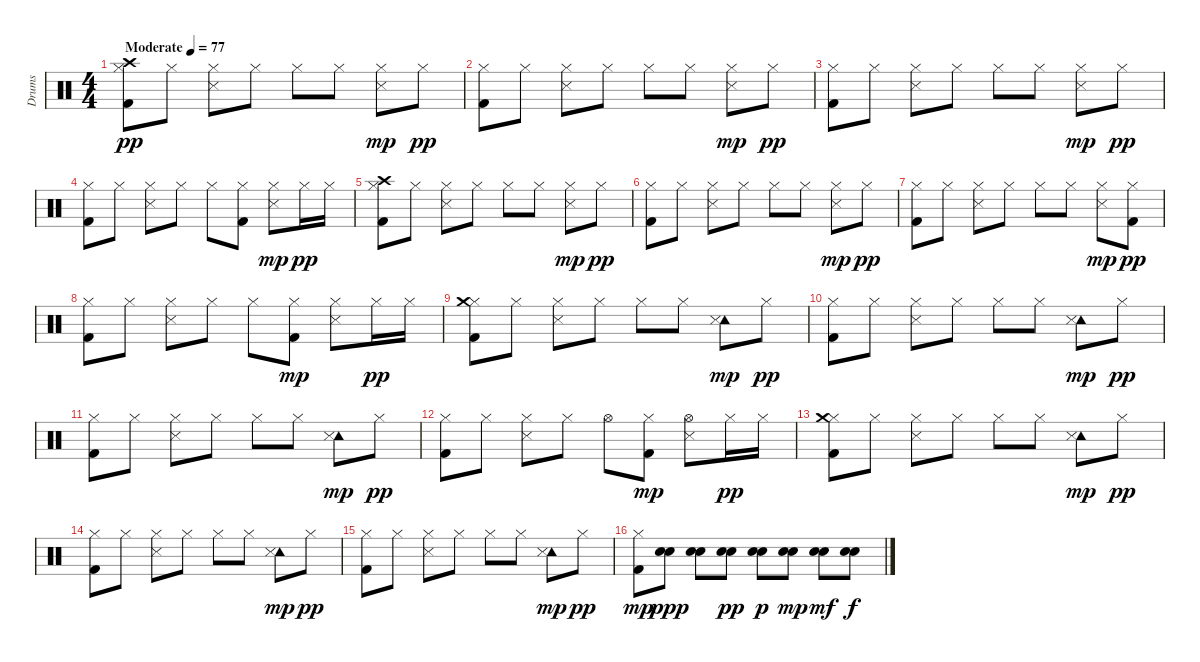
\track ("Drums" "Drums") {instrument percussion}
\staff {score}
\articulation defaults
\ts (4 4)
\tempo (77 "Moderate")
\clef neutral
\ks c
("Hi-Hat (closed)" "Crash high (hit)" "Kick (hit) 2").8{dy pp} "Hi-Hat (closed)".8 ("Hi-Hat (closed)" "Snare (side stick) 3").8 "Hi-Hat (closed)".8 "Hi-Hat (closed)".8 "Hi-Hat (closed)".8 ("Hi-Hat (closed)" "Snare (side stick) 3").8{dy mp} "Hi-Hat (closed)".8{dy pp} |
("Hi-Hat (closed)" "Kick (hit) 2").8 "Hi-Hat (closed)".8 ("Hi-Hat (closed)" "Snare (side stick) 3").8 "Hi-Hat (closed)".8 "Hi-Hat (closed)".8 "Hi-Hat (closed)".8 ("Hi-Hat (closed)" "Snare (side stick) 3").8{dy mp} "Hi-Hat (closed)".8{dy pp} |
("Hi-Hat (closed)" "Kick (hit) 2").8 "Hi-Hat (closed)".8 ("Hi-Hat (closed)" "Snare (side stick) 3").8 "Hi-Hat (closed)".8 "Hi-Hat (closed)".8 "Hi-Hat (closed)".8 ("Hi-Hat (closed)" "Snare (side stick) 3").8{dy mp} "Hi-Hat (closed)".8{dy pp} |
("Hi-Hat (closed)" "Kick (hit) 2").8 "Hi-Hat (closed)".8 ("Hi-Hat (closed)" "Snare (side stick) 3").8 "Hi-Hat (closed)".8 "Hi-Hat (closed)".8 ("Hi-Hat (closed)" "Kick (hit) 2").8 ("Hi-Hat (closed)" "Snare (side stick) 3").8{dy mp} "Hi-Hat (closed)".16{dy pp} "Hi-Hat (closed)".16 |
("Hi-Hat (closed)" "Crash high (hit)" "Kick (hit) 2").8 "Hi-Hat (closed)".8 ("Hi-Hat (closed)" "Snare (side stick) 3").8 "Hi-Hat (closed)".8 "Hi-Hat (closed)".8 "Hi-Hat (closed)".8 ("Hi-Hat (closed)" "Snare (side stick) 3").8{dy mp} "Hi-Hat (closed)".8{dy pp} |
("Hi-Hat (closed)" "Kick (hit) 2").8 "Hi-Hat (closed)".8 ("Hi-Hat (closed)" "Snare (side stick) 3").8 "Hi-Hat (closed)".8 "Hi-Hat (closed)".8 "Hi-Hat (closed)".8 ("Hi-Hat (closed)" "Snare (side stick) 3").8{dy mp} "Hi-Hat (closed)".8{dy pp} |
("Hi-Hat (closed)" "Kick (hit) 2").8 "Hi-Hat (closed)".8 ("Hi-Hat (closed)" "Snare (side stick) 3").8 "Hi-Hat (closed)".8 "Hi-Hat (closed)".8 "Hi-Hat (closed)".8 ("Hi-Hat (closed)" "Snare (side stick) 3").8{dy mp} ("Hi-Hat (closed)" "Kick (hit) 2").8{dy pp} |
("Hi-Hat (closed)" "Kick (hit) 2").8 "Hi-Hat (closed)".8 ("Hi-Hat (closed)" "Snare (side stick) 3").8 "Hi-Hat (closed)".8 "Hi-Hat (closed)".8 ("Hi-Hat (closed)" "Kick (hit) 2").8{dy mp} ("Hi-Hat (closed)" "Snare (side stick) 3").8 "Hi-Hat (closed)".16{dy pp} "Hi-Hat (closed)".16 |
("Hi-Hat (closed)" "Crash medium (hit)" "Kick (hit) 2").8 "Hi-Hat (closed)".8 ("Hi-Hat (closed)" "Snare (side stick) 3").8 "Hi-Hat (closed)".8 "Hi-Hat (closed)".8 "Hi-Hat (closed)".8 ("Tambourine (hit)" "Snare (side stick) 3").8{dy mp} "Hi-Hat (closed)".8{dy pp} |
("Hi-Hat (closed)" "Kick (hit) 2").8 "Hi-Hat (closed)".8 ("Hi-Hat (closed)" "Snare (side stick) 3").8 "Hi-Hat (closed)".8 "Hi-Hat (closed)".8 "Hi-Hat (closed)".8 ("Tambourine (hit)" "Snare (side stick) 3").8{dy mp} "Hi-Hat (closed)".8{dy pp} |
("Hi-Hat (closed)" "Kick (hit) 2").8 "Hi-Hat (closed)".8 ("Hi-Hat (closed)" "Snare (side stick) 3").8 "Hi-Hat (closed)".8 "Hi-Hat (closed)".8 "Hi-Hat (closed)".8 ("Tambourine (hit)" "Snare (side stick) 3").8{dy mp} "Hi-Hat (closed)".8{dy pp} |
("Hi-Hat (closed)" "Kick (hit) 2").8 "Hi-Hat (closed)".8 ("Hi-Hat (closed)" "Snare (side stick) 3").8 "Hi-Hat (closed)".8 "Hi-Hat (open)".8 ("Hi-Hat (closed)" "Kick (hit) 2").8{dy mp} ("Hi-Hat (open)" "Snare (side stick) 3").8 "Hi-Hat (closed)".16{dy pp} "Hi-Hat (closed)".16 |
("Hi-Hat (closed)" "Crash medium (hit)" "Kick (hit) 2").8 "Hi-Hat (closed)".8 ("Hi-Hat (closed)" "Snare (side stick) 3").8 "Hi-Hat (closed)".8 "Hi-Hat (closed)".8 "Hi-Hat (closed)".8 ("Tambourine (hit)" "Snare (side stick) 3").8{dy mp} "Hi-Hat (closed)".8{dy pp} |
("Hi-Hat (closed)" "Kick (hit) 2").8 "Hi-Hat (closed)".8 ("Hi-Hat (closed)" "Snare (side stick) 3").8 "Hi-Hat (closed)".8 "Hi-Hat (closed)".8 "Hi-Hat (closed)".8 ("Tambourine (hit)" "Snare (side stick) 3").8{dy mp} "Hi-Hat (closed)".8{dy pp} |
("Hi-Hat (closed)" "Kick (hit) 2").8 "Hi-Hat (closed)".8 ("Hi-Hat (closed)" "Snare (side stick) 3").8 "Hi-Hat (closed)".8 "Hi-Hat (closed)".8 "Hi-Hat (closed)".8 ("Tambourine (hit)" "Snare (side stick) 3").8{dy mp} "Hi-Hat (closed)".8{dy pp} |
("Hi-Hat (closed)" "Kick (hit) 2").8{dy mp} ("Electric Snare (hit)" "Electric Snare (hit)").8{dy ppp} ("Electric Snare (hit)" "Electric Snare (hit)").8 ("Electric Snare (hit)" "Electric Snare (hit)").8{dy pp} ("Electric Snare (hit)" "Electric Snare (hit)").8{dy p} ("Electric Snare (hit)" "Electric Snare (hit)").8{dy mp} ("Electric Snare (hit)" "Electric Snare (hit)").8{dy mf} ("Electric Snare (hit)" "Electric Snare (hit)").8{dy f}
